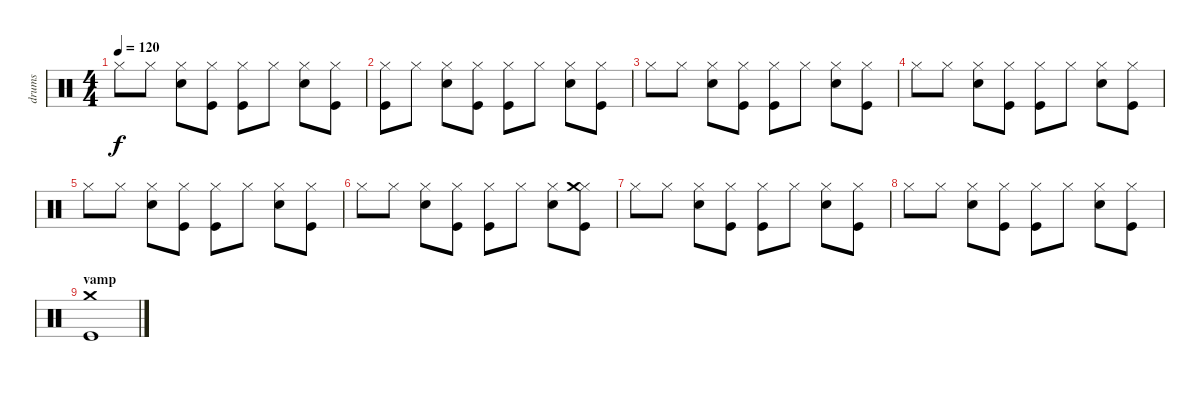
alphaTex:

\track ("drums" "drums") {instrument percussion}
\staff {score}
\articulation defaults
\ts (4 4)
\tempo 120
\clef neutral
\ks c "Hi-Hat (closed)".8{dy f} "Hi-Hat (closed)".8
("Electric Snare (hit)" "Hi-Hat (closed)").8 ("Kick (hit)" "Hi-Hat (closed)").8 ("Kick (hit)" "Hi-Hat (closed)").8 "Hi-Hat (closed)".8 ("Electric Snare (hit)" "Hi-Hat (closed)").8 ("Kick (hit)" "Hi-Hat (closed)").8 |
("Kick (hit)" "Hi-Hat (closed)").8 "Hi-Hat (closed)".8 ("Electric Snare (hit)" "Hi-Hat (closed)").8 ("Kick (hit)" "Hi-Hat (closed)").8 ("Kick (hit)" "Hi-Hat (closed)").8 "Hi-Hat (closed)".8 ("Electric Snare (hit)" "Hi-Hat (closed)").8 ("Kick (hit)" "Hi-Hat (closed)").8 |
"Hi-Hat (closed)".8 "Hi-Hat (closed)".8 ("Electric Snare (hit)" "Hi-Hat (closed)").8 ("Kick (hit)" "Hi-Hat (closed)").8 ("Kick (hit)" "Hi-Hat (closed)").8 "Hi-Hat (closed)".8 ("Electric Snare (hit)" "Hi-Hat (closed)").8 ("Kick (hit)" "Hi-Hat (closed)").8 |
"Hi-Hat (closed)".8 "Hi-Hat (closed)".8 ("Electric Snare (hit)" "Hi-Hat (closed)").8 ("Kick (hit)" "Hi-Hat (closed)").8 ("Kick (hit)" "Hi-Hat (closed)").8 "Hi-Hat (closed)".8 ("Electric Snare (hit)" "Hi-Hat (closed)").8 ("Kick (hit)" "Hi-Hat (closed)").8 |
"Hi-Hat (closed)".8 "Hi-Hat (closed)".8 ("Electric Snare (hit)" "Hi-Hat (closed)").8 ("Kick (hit)" "Hi-Hat (closed)").8 ("Kick (hit)" "Hi-Hat (closed)").8 "Hi-Hat (closed)".8 ("Electric Snare (hit)" "Hi-Hat (closed)").8 ("Kick (hit)" "Hi-Hat (closed)").8 |
"Hi-Hat (closed)".8 "Hi-Hat (closed)".8 ("Electric Snare (hit)" "Hi-Hat (closed)").8 ("Kick (hit)" "Hi-Hat (closed)").8 ("Kick (hit)" "Hi-Hat (closed)").8 "Hi-Hat (closed)".8 ("Electric Snare (hit)" "Hi-Hat (closed)").8 ("Kick (hit)" "Hi-Hat (closed)" "Crash medium (hit)").8 |
"Hi-Hat (closed)".8 "Hi-Hat (closed)".8 ("Electric Snare (hit)" "Hi-Hat (closed)").8 ("Kick (hit)" "Hi-Hat (closed)").8 ("Kick (hit)" "Hi-Hat (closed)").8 "Hi-Hat (closed)".8 ("Electric Snare (hit)" "Hi-Hat (closed)").8 ("Kick (hit)" "Hi-Hat (closed)").8 |
"Hi-Hat (closed)".8 "Hi-Hat (closed)".8 ("Electric Snare (hit)" "Hi-Hat (closed)").8 ("Kick (hit)" "Hi-Hat (closed)").8 ("Kick (hit)" "Hi-Hat (closed)").8 "Hi-Hat (closed)".8 ("Electric Snare (hit)" "Hi-Hat (closed)").8 ("Kick (hit)" "Hi-Hat (closed)").8 |
\section ("" "vamp")
("Kick (hit)" "Crash medium (hit)").1
